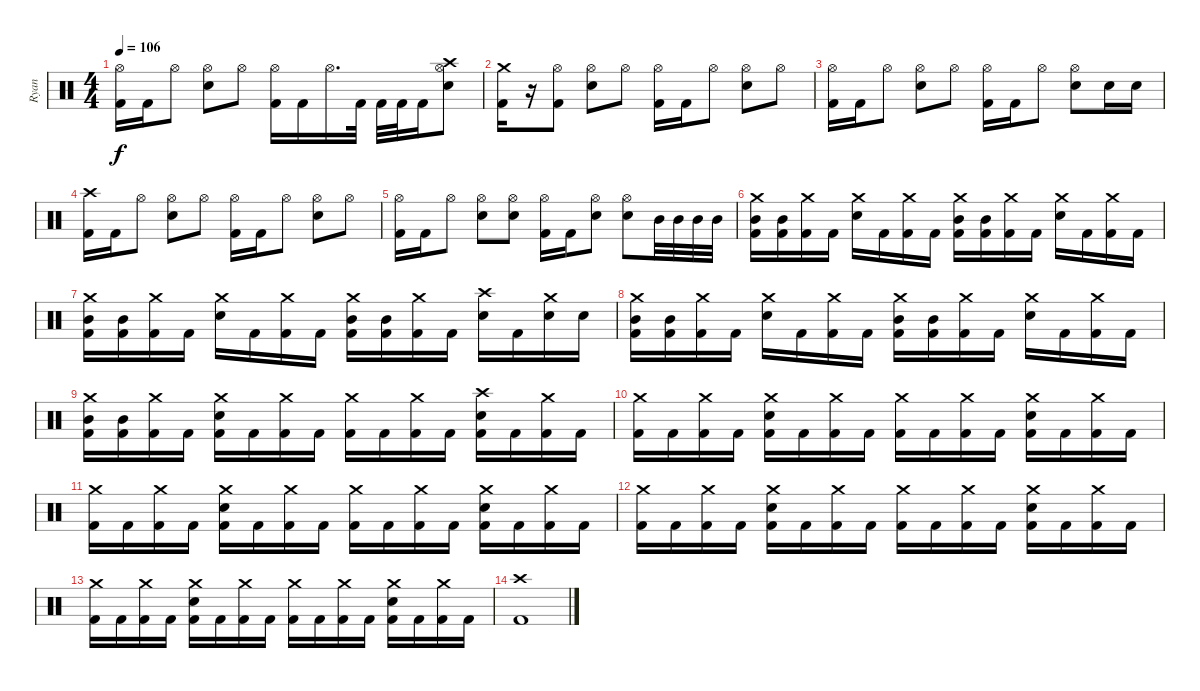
\track ("Ryan" "Ryan") {instrument percussion}
\staff {score}
\articulation defaults
\ts (4 4)
\tempo 106
\clef neutral
\ks c
("Hi-Hat (open)" "Kick (hit) 2").16{dy f} "Kick (hit) 2".16 "Hi-Hat (open)".8 ("Hi-Hat (open)" "Electric Snare (hit)").8 "Hi-Hat (open)".8 ("Hi-Hat (open)" "Kick (hit) 2").16 "Kick (hit) 2".16 "Hi-Hat (open)".16{d} "Kick (hit) 2".32 "Kick (hit) 2".32 "Kick (hit) 2".32 "Kick (hit) 2".16 ("Hi-Hat (open)" "Crash high (hit)" "Electric Snare (hit)").8 |
("Crash medium (hit)" "Kick (hit) 2").16 r.16 ("Hi-Hat (open)" "Kick (hit) 2").8 ("Hi-Hat (open)" "Electric Snare (hit)").8 "Hi-Hat (open)".8 ("Hi-Hat (open)" "Kick (hit) 2").16 "Kick (hit) 2".16 "Hi-Hat (open)".8 ("Hi-Hat (open)" "Electric Snare (hit)").8 "Hi-Hat (open)".8 |
("Hi-Hat (open)" "Kick (hit) 2").16 "Kick (hit) 2".16 "Hi-Hat (open)".8 ("Hi-Hat (open)" "Electric Snare (hit)").8 "Hi-Hat (open)".8 ("Hi-Hat (open)" "Kick (hit) 2").16 "Kick (hit) 2".16 "Hi-Hat (open)".8 ("Hi-Hat (open)" "Electric Snare (hit)").8 "Electric Snare (hit)".16 "Electric Snare (hit)".16 |
("Crash high (hit)" "Kick (hit) 2").16 "Kick (hit) 2".16 "Hi-Hat (open)".8 ("Hi-Hat (open)" "Electric Snare (hit)").8 "Hi-Hat (open)".8 ("Hi-Hat (open)" "Kick (hit) 2").16 "Kick (hit) 2".16 "Hi-Hat (open)".8 ("Hi-Hat (open)" "Electric Snare (hit)").8 "Hi-Hat (open)".8 |
("Hi-Hat (open)" "Kick (hit) 2").16 "Kick (hit) 2".16 "Hi-Hat (open)".8 ("Hi-Hat (open)" "Electric Snare (hit)").8 ("Hi-Hat (open)" "Electric Snare (hit)").8 ("Hi-Hat (open)" "Kick (hit) 2").16 "Kick (hit) 2".16 ("Hi-Hat (open)" "Electric Snare (hit)").8 ("Hi-Hat (open)" "Electric Snare (hit)").8 "Mid Tom (hit)".32 "Mid Tom (hit)".32 "Mid Tom (hit)".32 "Mid Tom (hit)".32 |
("Crash medium (hit)" "Mid Tom (hit)" "Kick (hit) 2").16 ("Mid Tom (hit)" "Kick (hit) 2").16 ("Crash medium (hit)" "Kick (hit) 2").16 "Kick (hit) 2".16 ("Crash medium (hit)" "Electric Snare (hit)").16 "Kick (hit) 2".16 ("Crash medium (hit)" "Kick (hit) 2").16 "Kick (hit) 2".16 ("Crash medium (hit)" "Mid Tom (hit)" "Kick (hit) 2").16 ("Mid Tom (hit)" "Kick (hit) 2").16 ("Crash medium (hit)" "Kick (hit) 2").16 "Kick (hit) 2".16 ("Crash medium (hit)" "Electric Snare (hit)").16 "Kick (hit) 2".16 ("Crash medium (hit)" "Kick (hit) 2").16 "Kick (hit) 2".16 |
("Crash medium (hit)" "Mid Tom (hit)" "Kick (hit) 2").16 ("Mid Tom (hit)" "Kick (hit) 2").16 ("Crash medium (hit)" "Kick (hit) 2").16 "Kick (hit) 2".16 ("Crash medium (hit)" "Electric Snare (hit)").16 "Kick (hit) 2".16 ("Crash medium (hit)" "Kick (hit) 2").16 "Kick (hit) 2".16 ("Crash medium (hit)" "Mid Tom (hit)" "Kick (hit) 2").16 ("Mid Tom (hit)" "Kick (hit) 2").16 ("Crash medium (hit)" "Kick (hit) 2").16 "Kick (hit) 2".16 ("Crash high (hit)" "Electric Snare (hit)").16 "Kick (hit) 2".16 ("Crash medium (hit)" "Electric Snare (hit)").16 "Electric Snare (hit)".16 |
("Crash medium (hit)" "Mid Tom (hit)" "Kick (hit) 2").16 ("Mid Tom (hit)" "Kick (hit) 2").16 ("Crash medium (hit)" "Kick (hit) 2").16 "Kick (hit) 2".16 ("Crash medium (hit)" "Electric Snare (hit)").16 "Kick (hit) 2".16 ("Crash medium (hit)" "Kick (hit) 2").16 "Kick (hit) 2".16 ("Crash medium (hit)" "Mid Tom (hit)" "Kick (hit) 2").16 ("Mid Tom (hit)" "Kick (hit) 2").16 ("Crash medium (hit)" "Kick (hit) 2").16 "Kick (hit) 2".16 ("Crash medium (hit)" "Electric Snare (hit)").16 "Kick (hit) 2".16 ("Crash medium (hit)" "Kick (hit) 2").16 "Kick (hit) 2".16 |
("Crash medium (hit)" "Mid Tom (hit)" "Kick (hit) 2").16 ("Mid Tom (hit)" "Kick (hit) 2").16 ("Crash medium (hit)" "Kick (hit) 2").16 "Kick (hit) 2".16 ("Crash medium (hit)" "Electric Snare (hit)" "Kick (hit) 2").16 "Kick (hit) 2".16 ("Crash medium (hit)" "Kick (hit) 2").16 "Kick (hit) 2".16 ("Crash medium (hit)" "Kick (hit) 2").16 "Kick (hit) 2".16 ("Crash medium (hit)" "Kick (hit) 2").16 "Kick (hit) 2".16 ("Crash high (hit)" "Electric Snare (hit)" "Kick (hit) 2").16 "Kick (hit) 2".16 ("Crash medium (hit)" "Kick (hit) 2").16 "Kick (hit) 2".16 |
("Crash medium (hit)" "Kick (hit) 2").16 "Kick (hit) 2".16 ("Crash medium (hit)" "Kick (hit) 2").16 "Kick (hit) 2".16 ("Crash medium (hit)" "Electric Snare (hit)" "Kick (hit) 2").16 "Kick (hit) 2".16 ("Crash medium (hit)" "Kick (hit) 2").16 "Kick (hit) 2".16 ("Crash medium (hit)" "Kick (hit) 2").16 "Kick (hit) 2".16 ("Crash medium (hit)" "Kick (hit) 2").16 "Kick (hit) 2".16 ("Crash medium (hit)" "Electric Snare (hit)" "Kick (hit) 2").16 "Kick (hit) 2".16 ("Crash medium (hit)" "Kick (hit) 2").16 "Kick (hit) 2".16 |
("Crash medium (hit)" "Kick (hit) 2").16 "Kick (hit) 2".16 ("Crash medium (hit)" "Kick (hit) 2").16 "Kick (hit) 2".16 ("Crash medium (hit)" "Electric Snare (hit)" "Kick (hit) 2").16 "Kick (hit) 2".16 ("Crash medium (hit)" "Kick (hit) 2").16 "Kick (hit) 2".16 ("Crash medium (hit)" "Kick (hit) 2").16 "Kick (hit) 2".16 ("Crash medium (hit)" "Kick (hit) 2").16 "Kick (hit) 2".16 ("Crash medium (hit)" "Electric Snare (hit)" "Kick (hit) 2").16 "Kick (hit) 2".16 ("Crash medium (hit)" "Kick (hit) 2").16 "Kick (hit) 2".16 |
("Crash medium (hit)" "Kick (hit) 2").16 "Kick (hit) 2".16 ("Crash medium (hit)" "Kick (hit) 2").16 "Kick (hit) 2".16 ("Crash medium (hit)" "Electric Snare (hit)" "Kick (hit) 2").16 "Kick (hit) 2".16 ("Crash medium (hit)" "Kick (hit) 2").16 "Kick (hit) 2".16 ("Crash medium (hit)" "Kick (hit) 2").16 "Kick (hit) 2".16 ("Crash medium (hit)" "Kick (hit) 2").16 "Kick (hit) 2".16 ("Crash medium (hit)" "Electric Snare (hit)" "Kick (hit) 2").16 "Kick (hit) 2".16 ("Crash medium (hit)" "Kick (hit) 2").16 "Kick (hit) 2".16 |
("Crash medium (hit)" "Kick (hit) 2").16 "Kick (hit) 2".16 ("Crash medium (hit)" "Kick (hit) 2").16 "Kick (hit) 2".16 ("Crash medium (hit)" "Electric Snare (hit)" "Kick (hit) 2").16 "Kick (hit) 2".16 ("Crash medium (hit)" "Kick (hit) 2").16 "Kick (hit) 2".16 ("Crash medium (hit)" "Kick (hit) 2").16 "Kick (hit) 2".16 ("Crash medium (hit)" "Kick (hit) 2").16 "Kick (hit) 2".16 ("Crash medium (hit)" "Electric Snare (hit)" "Kick (hit) 2").16 "Kick (hit) 2".16 ("Crash medium (hit)" "Kick (hit) 2").16 "Kick (hit) 2".16 |
("Crash high (hit)" "Kick (hit) 2").1
